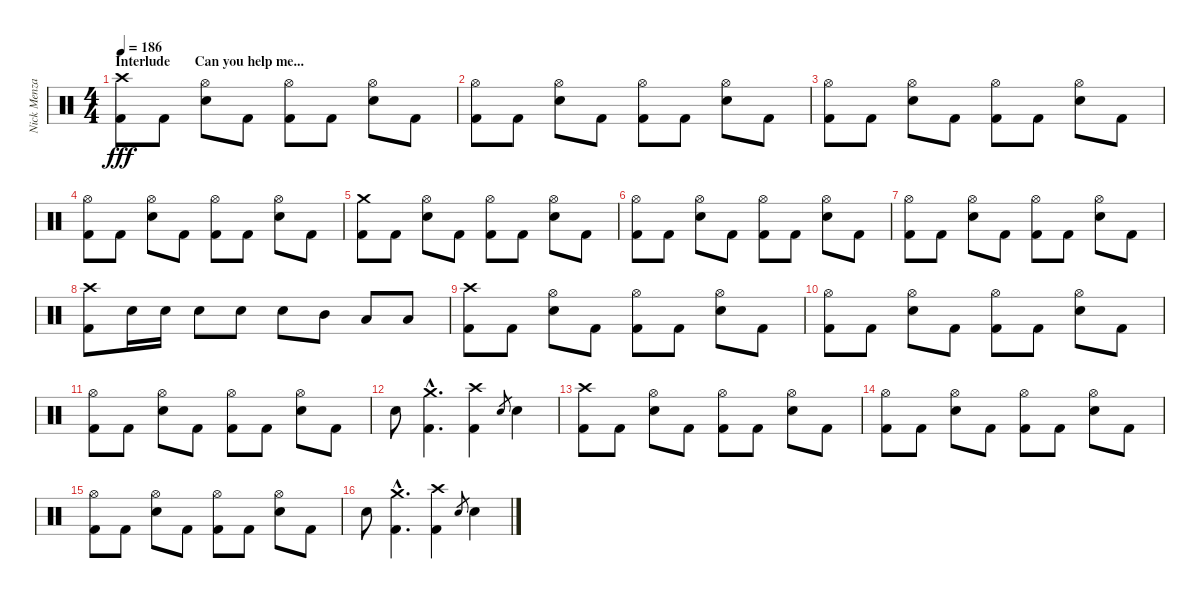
\track ("Nick Menza [Drums]" "Nick Menza") {instrument percussion}
\staff {score}
\articulation defaults
\ts (4 4)
\section ("" "Interlude       Can you help me...")
\tempo 186
\clef neutral
\ks c
("Kick (hit) 2" "Crash high (hit)").8{dy fff} "Kick (hit) 2".8 ("Snare (hit) 2" "Hi-Hat (open)").8 "Kick (hit) 2".8 ("Kick (hit) 2" "Hi-Hat (open)").8 "Kick (hit) 2".8 ("Snare (hit) 2" "Hi-Hat (open)").8 "Kick (hit) 2".8 |
("Kick (hit) 2" "Hi-Hat (open)").8 "Kick (hit) 2".8 ("Snare (hit) 2" "Hi-Hat (open)").8 "Kick (hit) 2".8 ("Kick (hit) 2" "Hi-Hat (open)").8 "Kick (hit) 2".8 ("Snare (hit) 2" "Hi-Hat (open)").8 "Kick (hit) 2".8 |
("Kick (hit) 2" "Hi-Hat (open)").8 "Kick (hit) 2".8 ("Snare (hit) 2" "Hi-Hat (open)").8 "Kick (hit) 2".8 ("Kick (hit) 2" "Hi-Hat (open)").8 "Kick (hit) 2".8 ("Snare (hit) 2" "Hi-Hat (open)").8 "Kick (hit) 2".8 |
("Kick (hit) 2" "Hi-Hat (open)").8 "Kick (hit) 2".8 ("Snare (hit) 2" "Hi-Hat (open)").8 "Kick (hit) 2".8 ("Kick (hit) 2" "Hi-Hat (open)").8 "Kick (hit) 2".8 ("Snare (hit) 2" "Hi-Hat (open)").8 "Kick (hit) 2".8 |
("Kick (hit) 2" "Crash medium (hit)").8 "Kick (hit) 2".8 ("Snare (hit) 2" "Hi-Hat (open)").8 "Kick (hit) 2".8 ("Kick (hit) 2" "Hi-Hat (open)").8 "Kick (hit) 2".8 ("Snare (hit) 2" "Hi-Hat (open)").8 "Kick (hit) 2".8 |
("Kick (hit) 2" "Hi-Hat (open)").8 "Kick (hit) 2".8 ("Snare (hit) 2" "Hi-Hat (open)").8 "Kick (hit) 2".8 ("Kick (hit) 2" "Hi-Hat (open)").8 "Kick (hit) 2".8 ("Snare (hit) 2" "Hi-Hat (open)").8 "Kick (hit) 2".8 |
("Kick (hit) 2" "Hi-Hat (open)").8 "Kick (hit) 2".8 ("Snare (hit) 2" "Hi-Hat (open)").8 "Kick (hit) 2".8 ("Kick (hit) 2" "Hi-Hat (open)").8 "Kick (hit) 2".8 ("Snare (hit) 2" "Hi-Hat (open)").8 "Kick (hit) 2".8 |
("Kick (hit) 2" "Crash high (hit)").8 "Snare (hit) 2".16 "Snare (hit) 2".16 "Snare (hit) 2".8 "Snare (hit) 2".8 "Snare (hit) 2".8 "Mid Tom (hit)".8 "Low Tom (hit)".8 "Low Tom (hit)".8 |
("Kick (hit) 2" "Crash high (hit)").8 "Kick (hit) 2".8 ("Snare (hit) 2" "Hi-Hat (open)").8 "Kick (hit) 2".8 ("Kick (hit) 2" "Hi-Hat (open)").8 "Kick (hit) 2".8 ("Snare (hit) 2" "Hi-Hat (open)").8 "Kick (hit) 2".8 |
("Kick (hit) 2" "Hi-Hat (open)").8 "Kick (hit) 2".8 ("Snare (hit) 2" "Hi-Hat (open)").8 "Kick (hit) 2".8 ("Kick (hit) 2" "Hi-Hat (open)").8 "Kick (hit) 2".8 ("Snare (hit) 2" "Hi-Hat (open)").8 "Kick (hit) 2".8 |
("Kick (hit) 2" "Hi-Hat (open)").8 "Kick (hit) 2".8 ("Snare (hit) 2" "Hi-Hat (open)").8 "Kick (hit) 2".8 ("Kick (hit) 2" "Hi-Hat (open)").8 "Kick (hit) 2".8 ("Snare (hit) 2" "Hi-Hat (open)").8 "Kick (hit) 2".8 |
"Snare (hit) 2".8 ("Kick (hit) 2"{hac} "Crash medium (hit)"{hac}).4{d} ("Kick (hit) 2" "Crash high (hit)").4 "Snare (hit) 2".8{gr} "Snare (hit) 2".4 |
("Kick (hit) 2" "Crash high (hit)").8 "Kick (hit) 2".8 ("Snare (hit) 2" "Hi-Hat (open)").8 "Kick (hit) 2".8 ("Kick (hit) 2" "Hi-Hat (open)").8 "Kick (hit) 2".8 ("Snare (hit) 2" "Hi-Hat (open)").8 "Kick (hit) 2".8 |
("Kick (hit) 2" "Hi-Hat (open)").8 "Kick (hit) 2".8 ("Snare (hit) 2" "Hi-Hat (open)").8 "Kick (hit) 2".8 ("Kick (hit) 2" "Hi-Hat (open)").8 "Kick (hit) 2".8 ("Snare (hit) 2" "Hi-Hat (open)").8 "Kick (hit) 2".8 |
("Kick (hit) 2" "Hi-Hat (open)").8 "Kick (hit) 2".8 ("Snare (hit) 2" "Hi-Hat (open)").8 "Kick (hit) 2".8 ("Kick (hit) 2" "Hi-Hat (open)").8 "Kick (hit) 2".8 ("Snare (hit) 2" "Hi-Hat (open)").8 "Kick (hit) 2".8 |
"Snare (hit) 2".8 ("Kick (hit) 2"{hac} "Crash medium (hit)"{hac}).4{d} ("Kick (hit) 2" "Crash high (hit)").4 "Snare (hit) 2".8{gr} "Snare (hit) 2".4
